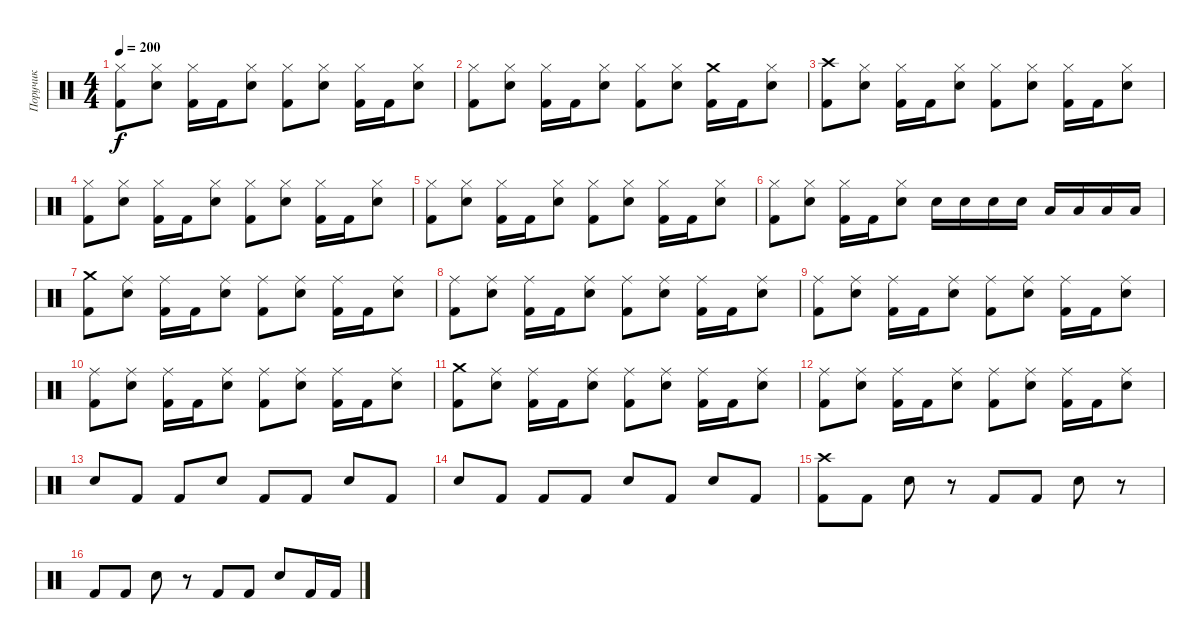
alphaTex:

\track ("Поручик" "Поручик") {instrument percussion}
\staff {score}
\articulation defaults
\ts (4 4)
\tempo 200
\clef neutral
\ks c
("Hi-Hat (closed)" "Kick (hit) 2").8{dy f} ("Hi-Hat (closed)" "Electric Snare (hit)").8 ("Hi-Hat (closed)" "Kick (hit) 2").16 "Kick (hit) 2".16 ("Hi-Hat (closed)" "Electric Snare (hit)").8 ("Hi-Hat (closed)" "Kick (hit) 2").8 ("Hi-Hat (closed)" "Electric Snare (hit)").8 ("Hi-Hat (closed)" "Kick (hit) 2").16 "Kick (hit) 2".16 ("Hi-Hat (closed)" "Electric Snare (hit)").8 |
("Hi-Hat (closed)" "Kick (hit) 2").8 ("Hi-Hat (closed)" "Electric Snare (hit)").8 ("Hi-Hat (closed)" "Kick (hit) 2").16 "Kick (hit) 2".16 ("Hi-Hat (closed)" "Electric Snare (hit)").8 ("Hi-Hat (closed)" "Kick (hit) 2").8 ("Hi-Hat (closed)" "Electric Snare (hit)").8 ("Crash medium (hit)" "Kick (hit) 2").16 "Kick (hit) 2".16 ("Hi-Hat (closed)" "Electric Snare (hit)").8 |
("Crash high (hit)" "Kick (hit) 2").8 ("Hi-Hat (closed)" "Electric Snare (hit)").8 ("Hi-Hat (closed)" "Kick (hit) 2").16 "Kick (hit) 2".16 ("Hi-Hat (closed)" "Electric Snare (hit)").8 ("Hi-Hat (closed)" "Kick (hit) 2").8 ("Hi-Hat (closed)" "Electric Snare (hit)").8 ("Hi-Hat (closed)" "Kick (hit) 2").16 "Kick (hit) 2".16 ("Hi-Hat (closed)" "Electric Snare (hit)").8 |
("Hi-Hat (closed)" "Kick (hit) 2").8 ("Hi-Hat (closed)" "Electric Snare (hit)").8 ("Hi-Hat (closed)" "Kick (hit) 2").16 "Kick (hit) 2".16 ("Hi-Hat (closed)" "Electric Snare (hit)").8 ("Hi-Hat (closed)" "Kick (hit) 2").8 ("Hi-Hat (closed)" "Electric Snare (hit)").8 ("Hi-Hat (closed)" "Kick (hit) 2").16 "Kick (hit) 2".16 ("Hi-Hat (closed)" "Electric Snare (hit)").8 |
("Hi-Hat (closed)" "Kick (hit) 2").8 ("Hi-Hat (closed)" "Electric Snare (hit)").8 ("Hi-Hat (closed)" "Kick (hit) 2").16 "Kick (hit) 2".16 ("Hi-Hat (closed)" "Electric Snare (hit)").8 ("Hi-Hat (closed)" "Kick (hit) 2").8 ("Hi-Hat (closed)" "Electric Snare (hit)").8 ("Hi-Hat (closed)" "Kick (hit) 2").16 "Kick (hit) 2".16 ("Hi-Hat (closed)" "Electric Snare (hit)").8 |
("Hi-Hat (closed)" "Kick (hit) 2").8 ("Hi-Hat (closed)" "Electric Snare (hit)").8 ("Hi-Hat (closed)" "Kick (hit) 2").16 "Kick (hit) 2".16 ("Hi-Hat (closed)" "Electric Snare (hit)").8 "Electric Snare (hit)".16 "Electric Snare (hit)".16 "Electric Snare (hit)".16 "Electric Snare (hit)".16 "Low Floor Tom (hit)".16 "Low Floor Tom (hit)".16 "Low Floor Tom (hit)".16 "Low Floor Tom (hit)".16 |
("Crash medium (hit)" "Kick (hit) 2").8 ("Ride (middle)" "Electric Snare (hit)").8 ("Ride (middle)" "Kick (hit) 2").16 "Kick (hit) 2".16 ("Ride (middle)" "Electric Snare (hit)").8 ("Ride (middle)" "Kick (hit) 2").8 ("Ride (middle)" "Electric Snare (hit)").8 ("Ride (middle)" "Kick (hit) 2").16 "Kick (hit) 2".16 ("Ride (middle)" "Electric Snare (hit)").8 |
("Ride (middle)" "Kick (hit) 2").8 ("Ride (middle)" "Electric Snare (hit)").8 ("Ride (middle)" "Kick (hit) 2").16 "Kick (hit) 2".16 ("Ride (middle)" "Electric Snare (hit)").8 ("Ride (middle)" "Kick (hit) 2").8 ("Ride (middle)" "Electric Snare (hit)").8 ("Ride (middle)" "Kick (hit) 2").16 "Kick (hit) 2".16 ("Ride (middle)" "Electric Snare (hit)").8 |
("Ride (middle)" "Kick (hit) 2").8 ("Ride (middle)" "Electric Snare (hit)").8 ("Ride (middle)" "Kick (hit) 2").16 "Kick (hit) 2".16 ("Ride (middle)" "Electric Snare (hit)").8 ("Ride (middle)" "Kick (hit) 2").8 ("Ride (middle)" "Electric Snare (hit)").8 ("Ride (middle)" "Kick (hit) 2").16 "Kick (hit) 2".16 ("Ride (middle)" "Electric Snare (hit)").8 |
("Ride (middle)" "Kick (hit) 2").8 ("Ride (middle)" "Electric Snare (hit)").8 ("Ride (middle)" "Kick (hit) 2").16 "Kick (hit) 2".16 ("Ride (middle)" "Electric Snare (hit)").8 ("Ride (middle)" "Kick (hit) 2").8 ("Ride (middle)" "Electric Snare (hit)").8 ("Ride (middle)" "Kick (hit) 2").16 "Kick (hit) 2".16 ("Ride (middle)" "Electric Snare (hit)").8 |
("Crash medium (hit)" "Kick (hit) 2").8 ("Ride (middle)" "Electric Snare (hit)").8 ("Ride (middle)" "Kick (hit) 2").16 "Kick (hit) 2".16 ("Ride (middle)" "Electric Snare (hit)").8 ("Ride (middle)" "Kick (hit) 2").8 ("Ride (middle)" "Electric Snare (hit)").8 ("Ride (middle)" "Kick (hit) 2").16 "Kick (hit) 2".16 ("Ride (middle)" "Electric Snare (hit)").8 |
("Ride (middle)" "Kick (hit) 2").8 ("Ride (middle)" "Electric Snare (hit)").8 ("Ride (middle)" "Kick (hit) 2").16 "Kick (hit) 2".16 ("Ride (middle)" "Electric Snare (hit)").8 ("Ride (middle)" "Kick (hit) 2").8 ("Ride (middle)" "Electric Snare (hit)").8 ("Ride (middle)" "Kick (hit) 2").16 "Kick (hit) 2".16 ("Ride (middle)" "Electric Snare (hit)").8 |
"Electric Snare (hit)".8 "Kick (hit) 2".8 "Kick (hit) 2".8 "Electric Snare (hit)".8 "Kick (hit) 2".8 "Kick (hit) 2".8 "Electric Snare (hit)".8 "Kick (hit) 2".8 |
"Electric Snare (hit)".8 "Kick (hit) 2".8 "Kick (hit) 2".8 "Kick (hit) 2".8 "Electric Snare (hit)".8 "Kick (hit) 2".8 "Electric Snare (hit)".8 "Kick (hit) 2".8 |
("Crash high (hit)" "Kick (hit) 2").8 "Kick (hit) 2".8 "Electric Snare (hit)".8 r.8 "Kick (hit) 2".8 "Kick (hit) 2".8 "Electric Snare (hit)".8 r.8 |
"Kick (hit) 2".8 "Kick (hit) 2".8 "Electric Snare (hit)".8 r.8 "Kick (hit) 2".8 "Kick (hit) 2".8 "Electric Snare (hit)".8 "Kick (hit) 2".16 "Kick (hit) 2".16
